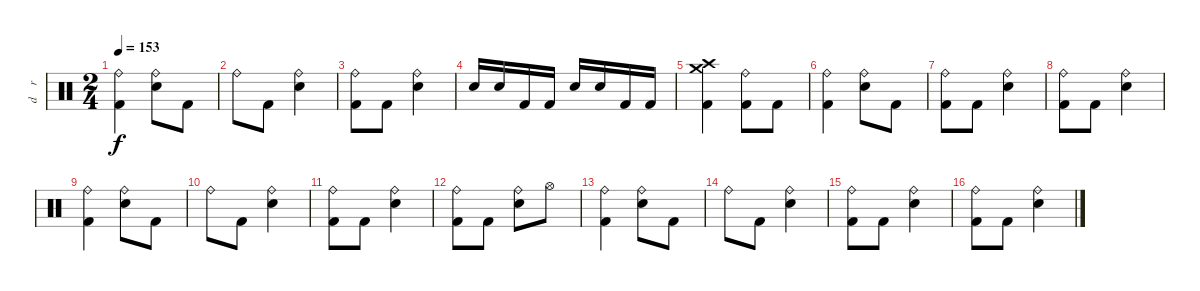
\track ("d    r     u    m    s" "d    r    ") {instrument percussion}
\staff {score}
\articulation defaults
\ts (2 4)
\tempo 153
\clef neutral
\ks c
("Ride (bell)" "Kick (hit) 2").4{dy f} ("Ride (bell)" "Electric Snare (hit)").8 "Kick (hit) 2".8 |
"Ride (bell)".8 "Kick (hit) 2".8 ("Ride (bell)" "Electric Snare (hit)").4 |
("Ride (bell)" "Kick (hit) 2").8 "Kick (hit) 2".8 ("Ride (bell)" "Electric Snare (hit)").4 |
"Electric Snare (hit)".16 "Electric Snare (hit)".16 "Kick (hit) 2".16 "Kick (hit) 2".16 "Electric Snare (hit)".16 "Electric Snare (hit)".16 "Kick (hit) 2".16 "Kick (hit) 2".16 |
("Crash high (hit)" "Crash medium (hit)" "Kick (hit) 2").4 ("Ride (bell)" "Kick (hit) 2").8 "Kick (hit) 2".8 |
("Ride (bell)" "Kick (hit) 2").4 ("Ride (bell)" "Electric Snare (hit)").8 "Kick (hit) 2".8 |
("Ride (bell)" "Kick (hit) 2").8 "Kick (hit) 2".8 ("Ride (bell)" "Electric Snare (hit)").4 |
("Ride (bell)" "Kick (hit) 2").8 "Kick (hit) 2".8 ("Ride (bell)" "Electric Snare (hit)").4 |
("Ride (bell)" "Kick (hit) 2").4 ("Ride (bell)" "Electric Snare (hit)").8 "Kick (hit) 2".8 |
"Ride (bell)".8 "Kick (hit) 2".8 ("Ride (bell)" "Electric Snare (hit)").4 |
("Ride (bell)" "Kick (hit) 2").8 "Kick (hit) 2".8 ("Ride (bell)" "Electric Snare (hit)").4 |
("Ride (bell)" "Kick (hit) 2").8 "Kick (hit) 2".8 ("Ride (bell)" "Electric Snare (hit)").8 "Hi-Hat (open)".8 |
("Ride (bell)" "Kick (hit) 2").4 ("Ride (bell)" "Electric Snare (hit)").8 "Kick (hit) 2".8 |
"Ride (bell)".8 "Kick (hit) 2".8 ("Ride (bell)" "Electric Snare (hit)").4 |
("Ride (bell)" "Kick (hit) 2").8 "Kick (hit) 2".8 ("Ride (bell)" "Electric Snare (hit)").4 |
("Ride (bell)" "Kick (hit) 2").8 "Kick (hit) 2".8 ("Ride (bell)" "Electric Snare (hit)").4
